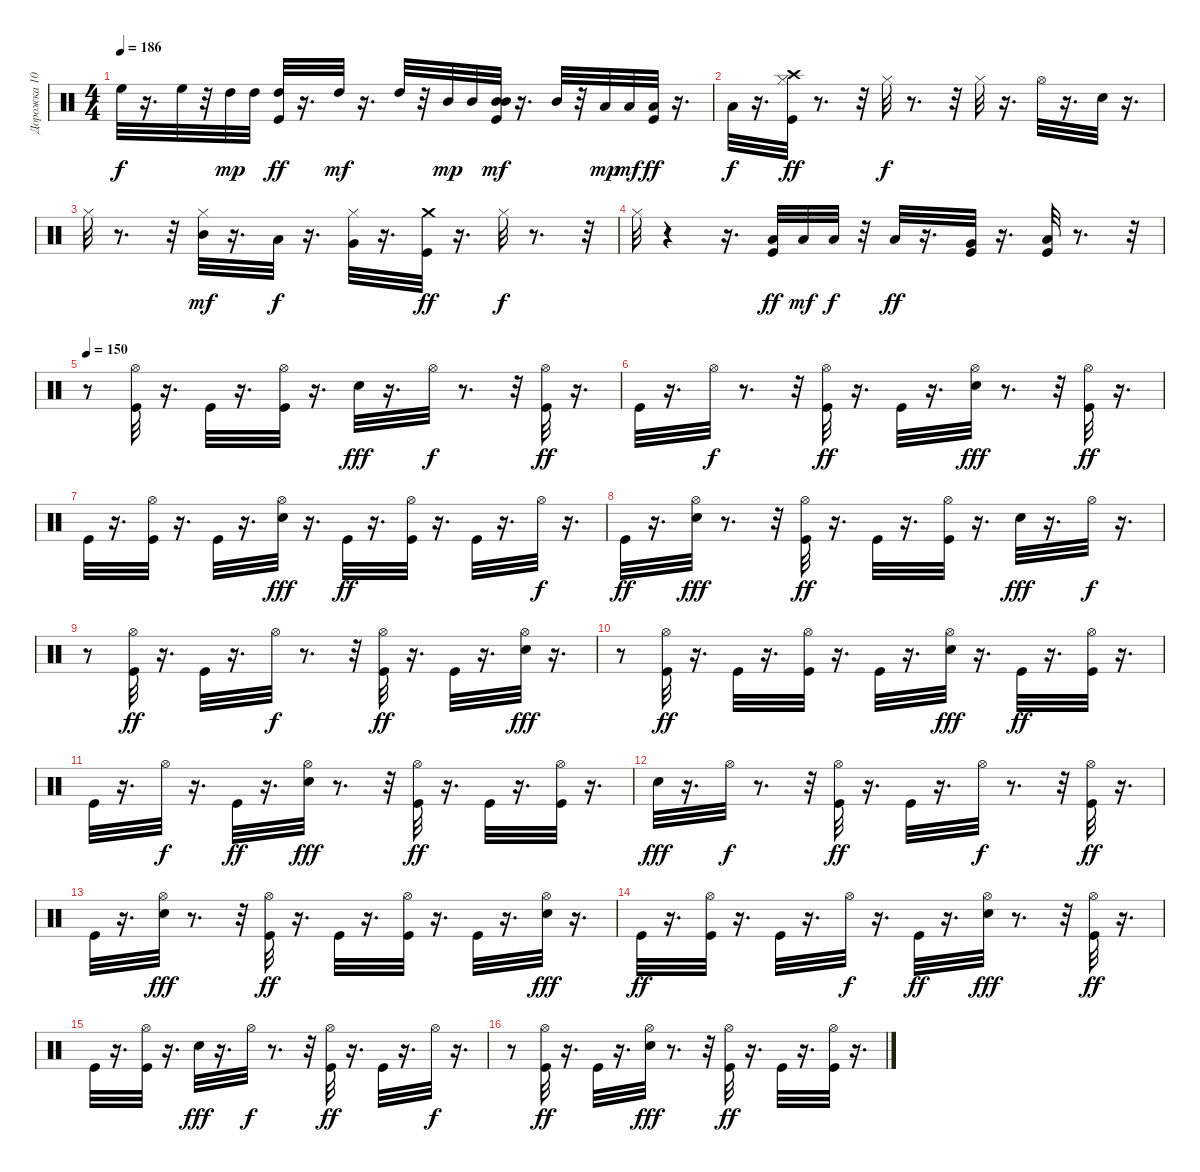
\track ("Дорожка 10" "Дорожка 10") {instrument percussion}
\staff {score}
\articulation defaults
\ts (4 4)
\tempo 186
\clef neutral
\ks c "High Floor Tom (hit)".32{dy f}
r.16{d} "High Floor Tom (hit)".32 r.32 "High Tom (hit)".32{dy mp} "High Tom (hit)".32 ("High Tom (hit)" "Kick (hit)").32{dy ff} r.16{d} "High Tom (hit)".32{dy mf} r.16{d} "High Tom (hit)".32 r.32 "Mid Tom (hit)".32{dy mp} "Mid Tom (hit)".32 ("Mid Tom (hit)" "Kick (hit)" "Mid Tom (hit)").32{dy mf} r.16{d} "Mid Tom (hit)".32 r.32 "Low Tom (hit)".32{dy mp} "Low Tom (hit)".32{dy mf} ("Low Tom (hit)" "Kick (hit)").32{dy ff} r.16{d} |
"Low Tom (hit)".32{dy f} r.16{d} ("Hi-Hat (closed)" "Kick (hit)" "Crash high (hit)").32{dy ff} r.8{d} r.32 "Hi-Hat (closed)".32{dy f} r.8{d} r.32 "Hi-Hat (closed)".32 r.16{d} "Hi-Hat (open)".32 r.16{d} "Electric Snare (hit)".32 r.16{d} |
"Hi-Hat (closed)".32 r.8{d} r.32 ("Hi-Hat (closed)" "Mid Tom (hit)").32{dy mf} r.16{d} "Low Tom (hit)".32{dy f} r.16{d} ("Hi-Hat (closed)" "Very Low Tom (hit)").32 r.16{d} ("Kick (hit)" "Crash medium (hit)").32{dy ff} r.16{d} "Hi-Hat (closed)".32{dy f} r.8{d} r.32 |
"Hi-Hat (closed)".32 r.4 r.16{d} ("Kick (hit)" "Low Tom (hit)").32{dy ff} "Low Tom (hit)".32{dy mf} "Low Tom (hit)".32{dy f} r.32 "Low Tom (hit)".32{dy ff} r.16{d} ("Kick (hit)" "Very Low Tom (hit)").32 r.16{d} ("Kick (hit)" "Low Floor Tom (hit)").32 r.8{d} r.32 |
\tempo 150
r.8 ("Hi-Hat (open)" "Kick (hit)").32 r.16{d} "Kick (hit)".32 r.16{d} ("Kick (hit)" "Hi-Hat (open)").32 r.16{d} "Electric Snare (hit)".32{dy fff} r.16{d} "Hi-Hat (open)".32{dy f} r.8{d} r.32 ("Hi-Hat (open)" "Kick (hit)").32{dy ff} r.16{d} |
"Kick (hit)".32 r.16{d} "Hi-Hat (open)".32{dy f} r.8{d} r.32 ("Hi-Hat (open)" "Kick (hit)").32{dy ff} r.16{d} "Kick (hit)".32 r.16{d} ("Hi-Hat (open)" "Electric Snare (hit)").32{dy fff} r.8{d} r.32 ("Kick (hit)" "Hi-Hat (open)").32{dy ff} r.16{d} |
"Kick (hit)".32 r.16{d} ("Hi-Hat (open)" "Kick (hit)").32 r.16{d} "Kick (hit)".32 r.16{d} ("Electric Snare (hit)" "Hi-Hat (open)").32{dy fff} r.16{d} "Kick (hit)".32{dy ff} r.16{d} ("Hi-Hat (open)" "Kick (hit)").32 r.16{d} "Kick (hit)".32 r.16{d} "Hi-Hat (open)".32{dy f} r.16{d} |
"Kick (hit)".32{dy ff} r.16{d} ("Electric Snare (hit)" "Hi-Hat (open)").32{dy fff} r.8{d} r.32 ("Hi-Hat (open)" "Kick (hit)").32{dy ff} r.16{d} "Kick (hit)".32 r.16{d} ("Kick (hit)" "Hi-Hat (open)").32 r.16{d} "Electric Snare (hit)".32{dy fff} r.16{d} "Hi-Hat (open)".32{dy f} r.16{d} |
r.8 ("Hi-Hat (open)" "Kick (hit)").32{dy ff} r.16{d} "Kick (hit)".32 r.16{d} "Hi-Hat (open)".32{dy f} r.8{d} r.32 ("Hi-Hat (open)" "Kick (hit)").32{dy ff} r.16{d} "Kick (hit)".32 r.16{d} ("Electric Snare (hit)" "Hi-Hat (open)").32{dy fff} r.16{d} |
r.8 ("Kick (hit)" "Hi-Hat (open)").32{dy ff} r.16{d} "Kick (hit)".32 r.16{d} ("Hi-Hat (open)" "Kick (hit)").32 r.16{d} "Kick (hit)".32 r.16{d} ("Electric Snare (hit)" "Hi-Hat (open)").32{dy fff} r.16{d} "Kick (hit)".32{dy ff} r.16{d} ("Hi-Hat (open)" "Kick (hit)").32 r.16{d} |
"Kick (hit)".32 r.16{d} "Hi-Hat (open)".32{dy f} r.16{d} "Kick (hit)".32{dy ff} r.16{d} ("Electric Snare (hit)" "Hi-Hat (open)").32{dy fff} r.8{d} r.32 ("Hi-Hat (open)" "Kick (hit)").32{dy ff} r.16{d} "Kick (hit)".32 r.16{d} ("Kick (hit)" "Hi-Hat (open)").32 r.16{d} |
"Electric Snare (hit)".32{dy fff} r.16{d} "Hi-Hat (open)".32{dy f} r.8{d} r.32 ("Hi-Hat (open)" "Kick (hit)").32{dy ff} r.16{d} "Kick (hit)".32 r.16{d} "Hi-Hat (open)".32{dy f} r.8{d} r.32 ("Hi-Hat (open)" "Kick (hit)").32{dy ff} r.16{d} |
"Kick (hit)".32 r.16{d} ("Electric Snare (hit)" "Hi-Hat (open)").32{dy fff} r.8{d} r.32 ("Kick (hit)" "Hi-Hat (open)").32{dy ff} r.16{d} "Kick (hit)".32 r.16{d} ("Hi-Hat (open)" "Kick (hit)").32 r.16{d} "Kick (hit)".32 r.16{d} ("Electric Snare (hit)" "Hi-Hat (open)").32{dy fff} r.16{d} |
"Kick (hit)".32{dy ff} r.16{d} ("Hi-Hat (open)" "Kick (hit)").32 r.16{d} "Kick (hit)".32 r.16{d} "Hi-Hat (open)".32{dy f} r.16{d} "Kick (hit)".32{dy ff} r.16{d} ("Electric Snare (hit)" "Hi-Hat (open)").32{dy fff} r.8{d} r.32 ("Hi-Hat (open)" "Kick (hit)").32{dy ff} r.16{d} |
"Kick (hit)".32 r.16{d} ("Kick (hit)" "Hi-Hat (open)").32 r.16{d} "Electric Snare (hit)".32{dy fff} r.16{d} "Hi-Hat (open)".32{dy f} r.8{d} r.32 ("Hi-Hat (open)" "Kick (hit)").32{dy ff} r.16{d} "Kick (hit)".32 r.16{d} "Hi-Hat (open)".32{dy f} r.16{d} |
r.8 ("Hi-Hat (open)" "Kick (hit)").32{dy ff} r.16{d} "Kick (hit)".32 r.16{d} ("Electric Snare (hit)" "Hi-Hat (open)").32{dy fff} r.8{d} r.32 ("Kick (hit)" "Hi-Hat (open)").32{dy ff} r.16{d} "Kick (hit)".32 r.16{d} ("Hi-Hat (open)" "Kick (hit)").32 r.16{d}
